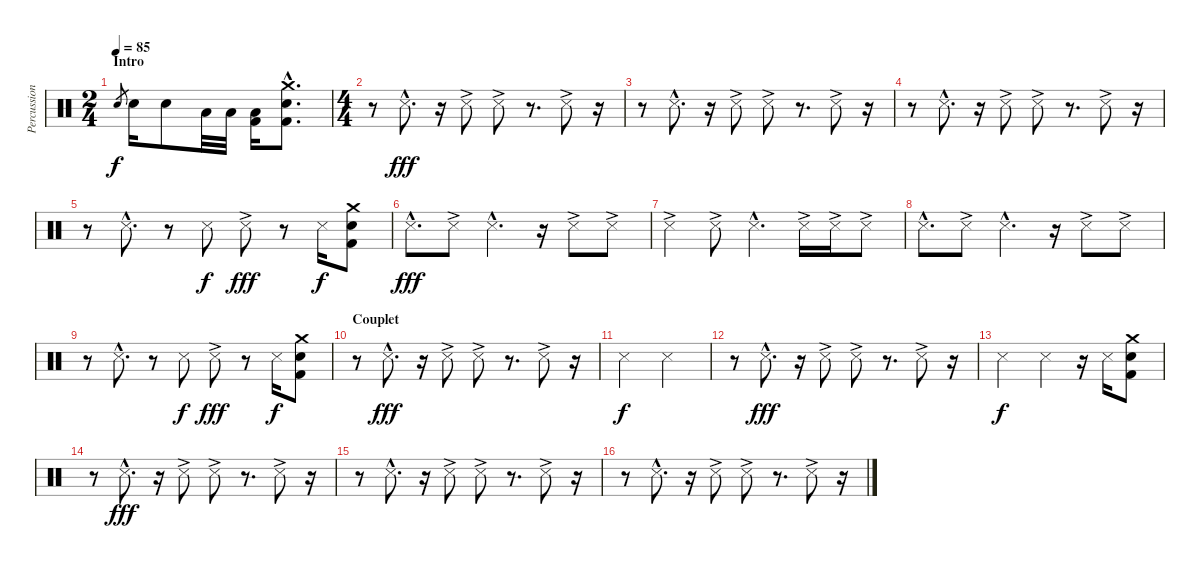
\track ("Percussions" "Percussion") {instrument percussion}
\staff {score}
\articulation defaults
\ts (2 4)
\section ("" "Intro")
\tempo 85
\clef neutral
\ks c "Snare (hit) 2".8{gr dy f} "Snare (hit) 2".16 "Snare (hit) 2".8 "Low Tom (hit)".32 "Low Floor Tom (hit)".32
("Low Floor Tom (hit)" "Kick (hit) 2").16 ("Crash medium (hit)"{hac} "Snare (hit) 2"{hac} "Kick (hit) 2"{hac}).8{d} |
\ts (4 4)
r.8 "Snare (side stick) 3"{hac}.8{d dy fff} r.16 "Snare (side stick) 3"{ac}.8 "Snare (side stick) 3"{ac}.8 r.8{d} "Snare (side stick) 3"{ac}.8 r.16 |
r.8 "Snare (side stick) 3"{hac}.8{d} r.16 "Snare (side stick) 3"{ac}.8 "Snare (side stick) 3"{ac}.8 r.8{d} "Snare (side stick) 3"{ac}.8 r.16 |
r.8 "Snare (side stick) 3"{hac}.8{d} r.16 "Snare (side stick) 3"{ac}.8 "Snare (side stick) 3"{ac}.8 r.8{d} "Snare (side stick) 3"{ac}.8 r.16 |
r.8 "Snare (side stick) 3"{hac}.8{d} r.8 "Snare (side stick) 3".8{dy f} "Snare (side stick) 3"{ac}.8{dy fff} r.8 "Snare (side stick) 3".16{dy f} ("Crash medium (hit)" "Snare (hit) 2" "Kick (hit) 2").8 |
"Snare (side stick) 3"{hac}.8{d dy fff} "Snare (side stick) 3"{ac}.8 "Snare (side stick) 3"{hac}.4{d} r.16 "Snare (side stick) 3"{ac}.8 "Snare (side stick) 3"{ac}.8 |
"Snare (side stick) 3"{ac}.4 "Snare (side stick) 3"{ac}.8 "Snare (side stick) 3"{hac}.4{d} "Snare (side stick) 3"{ac}.16 "Snare (side stick) 3"{ac}.16 "Snare (side stick) 3"{ac}.8 |
"Snare (side stick) 3"{hac}.8{d} "Snare (side stick) 3"{ac}.8 "Snare (side stick) 3"{hac}.4{d} r.16 "Snare (side stick) 3"{ac}.8 "Snare (side stick) 3"{ac}.8 |
r.8 "Snare (side stick) 3"{hac}.8{d} r.8 "Snare (side stick) 3".8{dy f} "Snare (side stick) 3"{ac}.8{dy fff} r.8 "Snare (side stick) 3".16{dy f} ("Crash medium (hit)" "Snare (hit) 2" "Kick (hit) 2").8 |
\section ("" "Couplet")
r.8 "Snare (side stick) 3"{hac}.8{d dy fff} r.16 "Snare (side stick) 3"{ac}.8 "Snare (side stick) 3"{ac}.8 r.8{d} "Snare (side stick) 3"{ac}.8 r.16 |
"Snare (side stick) 3".2{dy f} "Snare (side stick) 3".2 |
r.8 "Snare (side stick) 3"{hac}.8{d dy fff} r.16 "Snare (side stick) 3"{ac}.8 "Snare (side stick) 3"{ac}.8 r.8{d} "Snare (side stick) 3"{ac}.8 r.16 |
"Snare (side stick) 3".2{dy f} "Snare (side stick) 3".4 r.16 "Snare (side stick) 3".16 ("Crash medium (hit)" "Snare (hit) 2" "Kick (hit) 2").8 |
r.8 "Snare (side stick) 3"{hac}.8{d dy fff} r.16 "Snare (side stick) 3"{ac}.8 "Snare (side stick) 3"{ac}.8 r.8{d} "Snare (side stick) 3"{ac}.8 r.16 |
r.8 "Snare (side stick) 3"{hac}.8{d} r.16 "Snare (side stick) 3"{ac}.8 "Snare (side stick) 3"{ac}.8 r.8{d} "Snare (side stick) 3"{ac}.8 r.16 |
r.8 "Snare (side stick) 3"{hac}.8{d} r.16 "Snare (side stick) 3"{ac}.8 "Snare (side stick) 3"{ac}.8 r.8{d} "Snare (side stick) 3"{ac}.8 r.16
